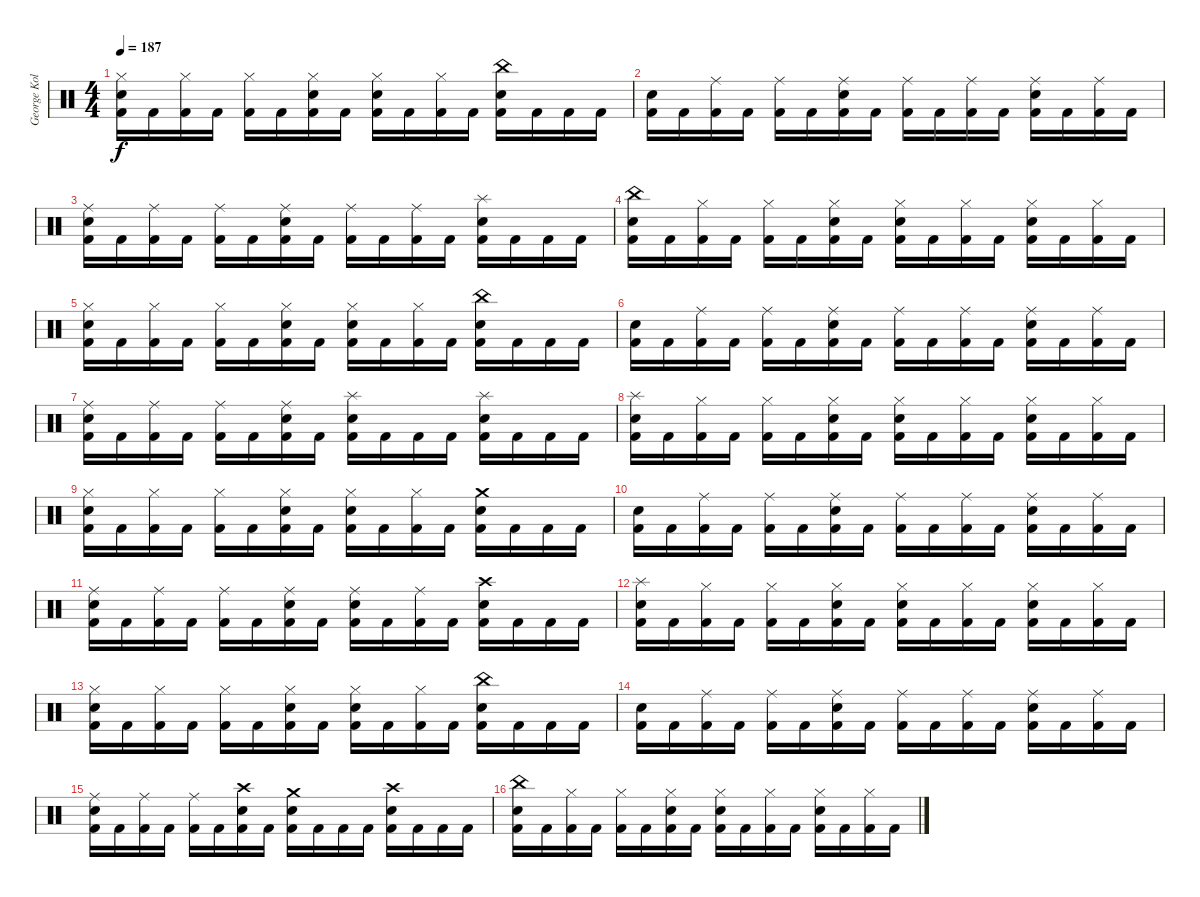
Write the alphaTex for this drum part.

\track ("George Kollias" "George Kol") {instrument percussion}
\staff {score}
\articulation defaults
\ts (4 4)
\tempo 187
\clef neutral
\ks c
("Hi-Hat (closed)" "Electric Snare (hit)" "Kick (hit) 2").16{dy f} "Kick (hit) 2".16 ("Hi-Hat (closed)" "Kick (hit) 2").16 "Kick (hit) 2".16 ("Hi-Hat (closed)" "Kick (hit) 2").16 "Kick (hit) 2".16 ("Hi-Hat (closed)" "Electric Snare (hit)" "Kick (hit) 2").16 "Kick (hit) 2".16 ("Hi-Hat (closed)" "Electric Snare (hit)" "Kick (hit) 2").16 "Kick (hit) 2".16 ("Hi-Hat (closed)" "Kick (hit) 2").16 "Kick (hit) 2".16 ("China (hit)" "Electric Snare (hit)" "Kick (hit) 2").16 "Kick (hit) 2".16 "Kick (hit) 2".16 "Kick (hit) 2".16 |
("Electric Snare (hit)" "Kick (hit) 2").16 "Kick (hit) 2".16 ("Ride (middle)" "Kick (hit) 2").16 "Kick (hit) 2".16 ("Ride (middle)" "Kick (hit) 2").16 "Kick (hit) 2".16 ("Ride (middle)" "Electric Snare (hit)" "Kick (hit) 2").16 "Kick (hit) 2".16 ("Ride (middle)" "Kick (hit) 2").16 "Kick (hit) 2".16 ("Ride (middle)" "Kick (hit) 2").16 "Kick (hit) 2".16 ("Ride (middle)" "Electric Snare (hit)" "Kick (hit) 2").16 "Kick (hit) 2".16 ("Ride (middle)" "Kick (hit) 2").16 "Kick (hit) 2".16 |
("Ride (middle)" "Electric Snare (hit)" "Kick (hit) 2").16 "Kick (hit) 2".16 ("Ride (middle)" "Kick (hit) 2").16 "Kick (hit) 2".16 ("Ride (middle)" "Kick (hit) 2").16 "Kick (hit) 2".16 ("Ride (middle)" "Electric Snare (hit)" "Kick (hit) 2").16 "Kick (hit) 2".16 ("Ride (middle)" "Kick (hit) 2").16 "Kick (hit) 2".16 ("Ride (middle)" "Kick (hit) 2").16 "Kick (hit) 2".16 ("Splash (hit)" "Electric Snare (hit)" "Kick (hit) 2").16 "Kick (hit) 2".16 "Kick (hit) 2".16 "Kick (hit) 2".16 |
("China (hit)" "Electric Snare (hit)" "Kick (hit) 2").16 "Kick (hit) 2".16 ("Hi-Hat (closed)" "Kick (hit) 2").16 "Kick (hit) 2".16 ("Hi-Hat (closed)" "Kick (hit) 2").16 "Kick (hit) 2".16 ("Hi-Hat (closed)" "Electric Snare (hit)" "Kick (hit) 2").16 "Kick (hit) 2".16 ("Hi-Hat (closed)" "Electric Snare (hit)" "Kick (hit) 2").16 "Kick (hit) 2".16 ("Hi-Hat (closed)" "Kick (hit) 2").16 "Kick (hit) 2".16 ("Hi-Hat (closed)" "Electric Snare (hit)" "Kick (hit) 2").16 "Kick (hit) 2".16 ("Hi-Hat (closed)" "Kick (hit) 2").16 "Kick (hit) 2".16 |
("Hi-Hat (closed)" "Electric Snare (hit)" "Kick (hit) 2").16 "Kick (hit) 2".16 ("Hi-Hat (closed)" "Kick (hit) 2").16 "Kick (hit) 2".16 ("Hi-Hat (closed)" "Kick (hit) 2").16 "Kick (hit) 2".16 ("Hi-Hat (closed)" "Electric Snare (hit)" "Kick (hit) 2").16 "Kick (hit) 2".16 ("Hi-Hat (closed)" "Electric Snare (hit)" "Kick (hit) 2").16 "Kick (hit) 2".16 ("Hi-Hat (closed)" "Kick (hit) 2").16 "Kick (hit) 2".16 ("China (hit)" "Electric Snare (hit)" "Kick (hit) 2").16 "Kick (hit) 2".16 "Kick (hit) 2".16 "Kick (hit) 2".16 |
("Electric Snare (hit)" "Kick (hit) 2").16 "Kick (hit) 2".16 ("Ride (middle)" "Kick (hit) 2").16 "Kick (hit) 2".16 ("Ride (middle)" "Kick (hit) 2").16 "Kick (hit) 2".16 ("Ride (middle)" "Electric Snare (hit)" "Kick (hit) 2").16 "Kick (hit) 2".16 ("Ride (middle)" "Kick (hit) 2").16 "Kick (hit) 2".16 ("Ride (middle)" "Kick (hit) 2").16 "Kick (hit) 2".16 ("Ride (middle)" "Electric Snare (hit)" "Kick (hit) 2").16 "Kick (hit) 2".16 ("Ride (middle)" "Kick (hit) 2").16 "Kick (hit) 2".16 |
("Ride (middle)" "Electric Snare (hit)" "Kick (hit) 2").16 "Kick (hit) 2".16 ("Ride (middle)" "Kick (hit) 2").16 "Kick (hit) 2".16 ("Ride (middle)" "Kick (hit) 2").16 "Kick (hit) 2".16 ("Ride (middle)" "Electric Snare (hit)" "Kick (hit) 2").16 "Kick (hit) 2".16 ("Splash (hit)" "Electric Snare (hit)" "Kick (hit) 2").16 "Kick (hit) 2".16 "Kick (hit) 2".16 "Kick (hit) 2".16 ("Splash (hit)" "Electric Snare (hit)" "Kick (hit) 2").16 "Kick (hit) 2".16 "Kick (hit) 2".16 "Kick (hit) 2".16 |
("Splash (hit)" "Electric Snare (hit)" "Kick (hit) 2").16 "Kick (hit) 2".16 ("Hi-Hat (closed)" "Kick (hit) 2").16 "Kick (hit) 2".16 ("Hi-Hat (closed)" "Kick (hit) 2").16 "Kick (hit) 2".16 ("Hi-Hat (closed)" "Electric Snare (hit)" "Kick (hit) 2").16 "Kick (hit) 2".16 ("Hi-Hat (closed)" "Electric Snare (hit)" "Kick (hit) 2").16 "Kick (hit) 2".16 ("Hi-Hat (closed)" "Kick (hit) 2").16 "Kick (hit) 2".16 ("Hi-Hat (closed)" "Electric Snare (hit)" "Kick (hit) 2").16 "Kick (hit) 2".16 ("Hi-Hat (closed)" "Kick (hit) 2").16 "Kick (hit) 2".16 |
("Hi-Hat (closed)" "Electric Snare (hit)" "Kick (hit) 2").16 "Kick (hit) 2".16 ("Hi-Hat (closed)" "Kick (hit) 2").16 "Kick (hit) 2".16 ("Hi-Hat (closed)" "Kick (hit) 2").16 "Kick (hit) 2".16 ("Hi-Hat (closed)" "Electric Snare (hit)" "Kick (hit) 2").16 "Kick (hit) 2".16 ("Hi-Hat (closed)" "Electric Snare (hit)" "Kick (hit) 2").16 "Kick (hit) 2".16 ("Hi-Hat (closed)" "Kick (hit) 2").16 "Kick (hit) 2".16 ("Crash medium (hit)" "Electric Snare (hit)" "Kick (hit) 2").16 "Kick (hit) 2".16 "Kick (hit) 2".16 "Kick (hit) 2".16 |
("Electric Snare (hit)" "Kick (hit) 2").16 "Kick (hit) 2".16 ("Ride (middle)" "Kick (hit) 2").16 "Kick (hit) 2".16 ("Ride (middle)" "Kick (hit) 2").16 "Kick (hit) 2".16 ("Ride (middle)" "Electric Snare (hit)" "Kick (hit) 2").16 "Kick (hit) 2".16 ("Ride (middle)" "Kick (hit) 2").16 "Kick (hit) 2".16 ("Ride (middle)" "Kick (hit) 2").16 "Kick (hit) 2".16 ("Ride (middle)" "Electric Snare (hit)" "Kick (hit) 2").16 "Kick (hit) 2".16 ("Ride (middle)" "Kick (hit) 2").16 "Kick (hit) 2".16 |
("Ride (middle)" "Electric Snare (hit)" "Kick (hit) 2").16 "Kick (hit) 2".16 ("Ride (middle)" "Kick (hit) 2").16 "Kick (hit) 2".16 ("Ride (middle)" "Kick (hit) 2").16 "Kick (hit) 2".16 ("Ride (middle)" "Electric Snare (hit)" "Kick (hit) 2").16 "Kick (hit) 2".16 ("Ride (middle)" "Electric Snare (hit)" "Kick (hit) 2").16 "Kick (hit) 2".16 ("Ride (middle)" "Kick (hit) 2").16 "Kick (hit) 2".16 ("Crash high (hit)" "Electric Snare (hit)" "Kick (hit) 2").16 "Kick (hit) 2".16 "Kick (hit) 2".16 "Kick (hit) 2".16 |
("Splash (hit)" "Electric Snare (hit)" "Kick (hit) 2").16 "Kick (hit) 2".16 ("Hi-Hat (closed)" "Kick (hit) 2").16 "Kick (hit) 2".16 ("Hi-Hat (closed)" "Kick (hit) 2").16 "Kick (hit) 2".16 ("Hi-Hat (closed)" "Electric Snare (hit)" "Kick (hit) 2").16 "Kick (hit) 2".16 ("Hi-Hat (closed)" "Electric Snare (hit)" "Kick (hit) 2").16 "Kick (hit) 2".16 ("Hi-Hat (closed)" "Kick (hit) 2").16 "Kick (hit) 2".16 ("Hi-Hat (closed)" "Electric Snare (hit)" "Kick (hit) 2").16 "Kick (hit) 2".16 ("Hi-Hat (closed)" "Kick (hit) 2").16 "Kick (hit) 2".16 |
("Hi-Hat (closed)" "Electric Snare (hit)" "Kick (hit) 2").16 "Kick (hit) 2".16 ("Hi-Hat (closed)" "Kick (hit) 2").16 "Kick (hit) 2".16 ("Hi-Hat (closed)" "Kick (hit) 2").16 "Kick (hit) 2".16 ("Hi-Hat (closed)" "Electric Snare (hit)" "Kick (hit) 2").16 "Kick (hit) 2".16 ("Hi-Hat (closed)" "Electric Snare (hit)" "Kick (hit) 2").16 "Kick (hit) 2".16 ("Hi-Hat (closed)" "Kick (hit) 2").16 "Kick (hit) 2".16 ("China (hit)" "Electric Snare (hit)" "Kick (hit) 2").16 "Kick (hit) 2".16 "Kick (hit) 2".16 "Kick (hit) 2".16 |
("Electric Snare (hit)" "Kick (hit) 2").16 "Kick (hit) 2".16 ("Ride (middle)" "Kick (hit) 2").16 "Kick (hit) 2".16 ("Ride (middle)" "Kick (hit) 2").16 "Kick (hit) 2".16 ("Ride (middle)" "Electric Snare (hit)" "Kick (hit) 2").16 "Kick (hit) 2".16 ("Ride (middle)" "Kick (hit) 2").16 "Kick (hit) 2".16 ("Ride (middle)" "Kick (hit) 2").16 "Kick (hit) 2".16 ("Ride (middle)" "Electric Snare (hit)" "Kick (hit) 2").16 "Kick (hit) 2".16 ("Ride (middle)" "Kick (hit) 2").16 "Kick (hit) 2".16 |
("Ride (middle)" "Electric Snare (hit)" "Kick (hit) 2").16 "Kick (hit) 2".16 ("Ride (middle)" "Kick (hit) 2").16 "Kick (hit) 2".16 ("Ride (middle)" "Kick (hit) 2").16 "Kick (hit) 2".16 ("Crash high (hit)" "Electric Snare (hit)" "Kick (hit) 2").16 "Kick (hit) 2".16 ("Crash medium (hit)" "Electric Snare (hit)" "Kick (hit) 2").16 "Kick (hit) 2".16 "Kick (hit) 2".16 "Kick (hit) 2".16 ("Crash high (hit)" "Electric Snare (hit)" "Kick (hit) 2").16 "Kick (hit) 2".16 "Kick (hit) 2".16 "Kick (hit) 2".16 |
("China (hit)" "Electric Snare (hit)" "Kick (hit) 2").16 "Kick (hit) 2".16 ("Hi-Hat (closed)" "Kick (hit) 2").16 "Kick (hit) 2".16 ("Hi-Hat (closed)" "Kick (hit) 2").16 "Kick (hit) 2".16 ("Hi-Hat (closed)" "Electric Snare (hit)" "Kick (hit) 2").16 "Kick (hit) 2".16 ("Hi-Hat (closed)" "Electric Snare (hit)" "Kick (hit) 2").16 "Kick (hit) 2".16 ("Hi-Hat (closed)" "Kick (hit) 2").16 "Kick (hit) 2".16 ("Hi-Hat (closed)" "Electric Snare (hit)" "Kick (hit) 2").16 "Kick (hit) 2".16 ("Hi-Hat (closed)" "Kick (hit) 2").16 "Kick (hit) 2".16
